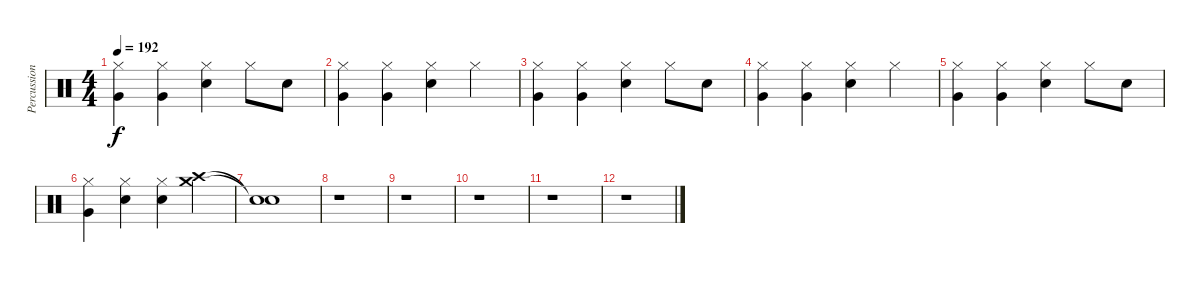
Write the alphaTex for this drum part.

\track ("Percussions" "Percussion") {instrument percussion}
\staff {score}
\articulation defaults
\ts (4 4)
\tempo 192
\clef neutral
\ks c
("Very Low Tom (hit)" "Hi-Hat (closed)").4{dy f} ("Very Low Tom (hit)" "Hi-Hat (closed)").4 ("Snare (hit) 2" "Hi-Hat (closed)").4 "Hi-Hat (closed)".8 "Snare (hit) 2".8 |
("Very Low Tom (hit)" "Hi-Hat (closed)").4 ("Very Low Tom (hit)" "Hi-Hat (closed)").4 ("Snare (hit) 2" "Hi-Hat (closed)").4 "Hi-Hat (closed)".4 |
("Very Low Tom (hit)" "Hi-Hat (closed)").4 ("Very Low Tom (hit)" "Hi-Hat (closed)").4 ("Snare (hit) 2" "Hi-Hat (closed)").4 "Hi-Hat (closed)".8 "Snare (hit) 2".8 |
("Very Low Tom (hit)" "Hi-Hat (closed)").4 ("Very Low Tom (hit)" "Hi-Hat (closed)").4 ("Snare (hit) 2" "Hi-Hat (closed)").4 "Hi-Hat (closed)".4 |
("Very Low Tom (hit)" "Hi-Hat (closed)").4 ("Very Low Tom (hit)" "Hi-Hat (closed)").4 ("Snare (hit) 2" "Hi-Hat (closed)").4 "Hi-Hat (closed)".8 "Snare (hit) 2".8 |
("Very Low Tom (hit)" "Hi-Hat (closed)").4 ("Snare (hit) 2" "Hi-Hat (closed)").4 ("Snare (hit) 2" "Hi-Hat (closed)").4 ("Crash high (hit)" "Crash medium (hit)").4 |
("Snare (hit)"{t} "Snare (hit)"{t}).1 |
r.1 |
r.1 |
r.1 |
r.1 |
r.1
